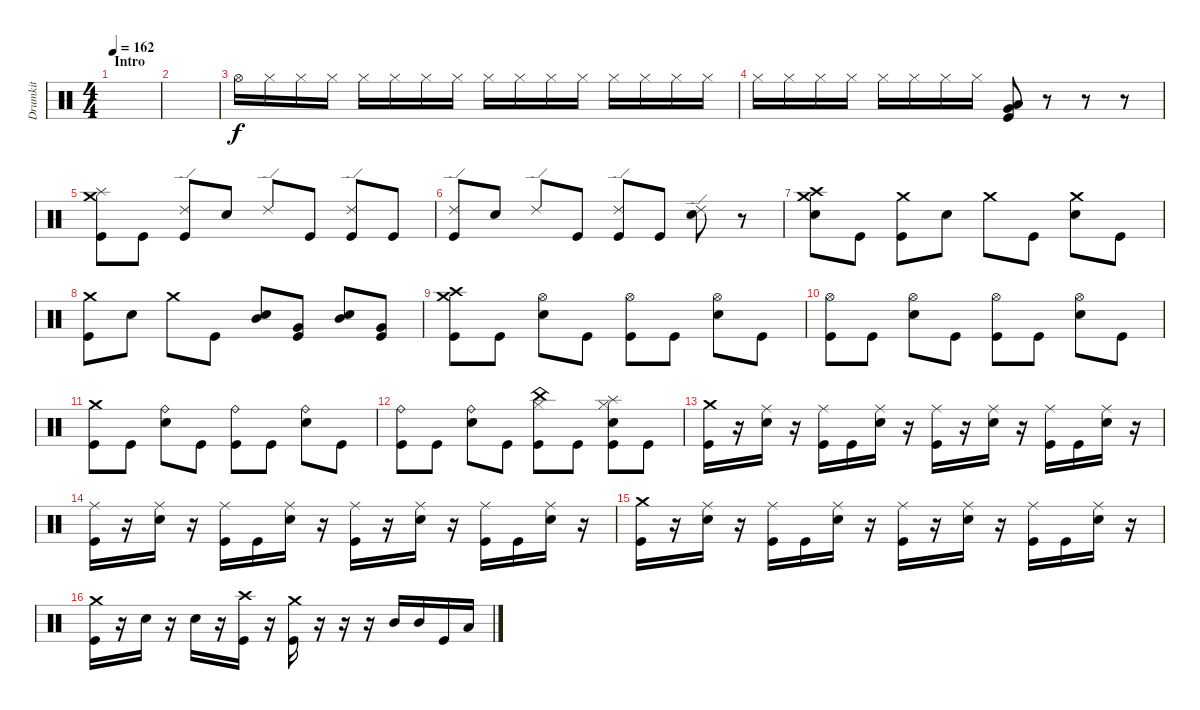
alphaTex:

\track ("Drumkit" "Drumkit") {instrument percussion}
\staff {score}
\articulation defaults
\ts (4 4)
\section ("" "Intro")
\tempo 162
\clef neutral
\ks c
|
|
"Hi-Hat (open)".16 "Hi-Hat (closed)".16 "Hi-Hat (closed)".16 "Hi-Hat (closed)".16 "Hi-Hat (closed)".16 "Hi-Hat (closed)".16 "Hi-Hat (closed)".16 "Hi-Hat (closed)".16 "Hi-Hat (closed)".16 "Hi-Hat (closed)".16 "Hi-Hat (closed)".16 "Hi-Hat (closed)".16 "Hi-Hat (closed)".16 "Hi-Hat (closed)".16 "Hi-Hat (closed)".16 "Hi-Hat (closed)".16 |
"Hi-Hat (closed)".16 "Hi-Hat (closed)".16 "Hi-Hat (closed)".16 "Hi-Hat (closed)".16 "Hi-Hat (closed)".16 "Hi-Hat (closed)".16 "Hi-Hat (closed)".16 "Hi-Hat (closed)".16 ("Kick (hit)" "Low Floor Tom (hit)" "Very Low Tom (hit)").8 r.8 r.8 r.8 |
("Kick (hit)" "Crash medium (hit)" "Splash (hit)").8 "Kick (hit)".8 ("Kick (hit)" "Ride (edge) 2").8 "Snare (hit) 2".8 "Ride (edge) 2".8 "Kick (hit)".8 ("Kick (hit)" "Ride (edge) 2").8 "Kick (hit)".8 |
("Kick (hit)" "Ride (edge) 2").8 "Snare (hit) 2".8 "Ride (edge) 2".8 "Kick (hit)".8 ("Kick (hit)" "Ride (edge) 2").8 "Kick (hit)".8 ("Snare (hit) 2" "Ride (edge) 2").8 r.8 |
("Snare (hit) 2" "Crash medium (hit)" "Crash high (hit)").8 "Kick (hit)".8 ("Kick (hit)" "Crash medium (hit)").8 "Snare (hit) 2".8 "Crash medium (hit)".8 "Kick (hit)".8 ("Snare (hit) 2" "Crash medium (hit)").8 "Kick (hit)".8 |
("Kick (hit)" "Crash medium (hit)").8 "Snare (hit) 2".8 "Crash medium (hit)".8 "Kick (hit)".8 ("Snare (hit) 2" "Mid Tom (hit)").8 ("Kick (hit)" "Very Low Tom (hit)").8 ("Snare (hit) 2" "Mid Tom (hit)").8 ("Kick (hit)" "Very Low Tom (hit)").8 |
("Kick (hit)" "Crash medium (hit)" "Crash high (hit)").8 "Kick (hit)".8 ("Snare (hit) 2" "Hi-Hat (open)").8 "Kick (hit)".8 ("Kick (hit)" "Hi-Hat (open)").8 "Kick (hit)".8 ("Snare (hit) 2" "Hi-Hat (open)").8 "Kick (hit)".8 |
("Kick (hit)" "Hi-Hat (open)").8 "Kick (hit)".8 ("Snare (hit) 2" "Hi-Hat (open)").8 "Kick (hit)".8 ("Kick (hit)" "Hi-Hat (open)").8 "Kick (hit)".8 ("Snare (hit) 2" "Hi-Hat (open)").8 "Kick (hit)".8 |
("Kick (hit)" "Crash medium (hit)").8 "Kick (hit)".8 ("Snare (hit) 2" "Ride (bell)").8 "Kick (hit)".8 ("Kick (hit)" "Ride (bell)").8 "Kick (hit)".8 ("Snare (hit) 2" "Ride (bell)").8 "Kick (hit)".8 |
("Kick (hit)" "Ride (bell)").8 "Kick (hit)".8 ("Snare (hit) 2" "Ride (bell)").8 "Kick (hit)".8 ("Kick (hit)" "Hi-Hat (closed)" "China (hit)").8 "Kick (hit)".8 ("Snare (hit) 2" "Kick (hit)" "Hi-Hat (closed)" "Splash (hit)").8 "Kick (hit)".8 |
("Kick (hit)" "Crash medium (hit)").16 r.16 ("Snare (hit) 2" "Ride (middle)").16 r.16 ("Kick (hit)" "Ride (middle)").16 "Kick (hit)".16 ("Snare (hit) 2" "Ride (middle)").16 r.16 ("Kick (hit)" "Ride (middle)").16 r.16 ("Snare (hit) 2" "Ride (middle)").16 r.16 ("Kick (hit)" "Ride (middle)").16 "Kick (hit)".16 ("Snare (hit) 2" "Ride (middle)").16 r.16 |
("Kick (hit)" "Ride (middle)").16 r.16 ("Snare (hit) 2" "Ride (middle)").16 r.16 ("Kick (hit)" "Ride (middle)").16 "Kick (hit)".16 ("Snare (hit) 2" "Ride (middle)").16 r.16 ("Kick (hit)" "Ride (middle)").16 r.16 ("Snare (hit) 2" "Ride (middle)").16 r.16 ("Kick (hit)" "Ride (middle)").16 "Kick (hit)".16 ("Snare (hit) 2" "Ride (middle)").16 r.16 |
("Kick (hit)" "Crash medium (hit)").16 r.16 ("Snare (hit) 2" "Ride (middle)").16 r.16 ("Kick (hit)" "Ride (middle)").16 "Kick (hit)".16 ("Snare (hit) 2" "Ride (middle)").16 r.16 ("Kick (hit)" "Ride (middle)").16 r.16 ("Snare (hit) 2" "Ride (middle)").16 r.16 ("Kick (hit)" "Ride (middle)").16 "Kick (hit)".16 ("Snare (hit) 2" "Ride (middle)").16 r.16 |
("Kick (hit)" "Crash medium (hit)").16 r.16 "Snare (hit) 2".16 r.16 "Snare (hit) 2".16 r.16 ("Kick (hit)" "Crash high (hit)").16 r.16 ("Kick (hit)" "Crash medium (hit)").16 r.16 r.16 r.16 "Mid Tom (hit)".16 "Mid Tom (hit)".16 "Kick (hit)".16 "Low Tom (hit)".16
